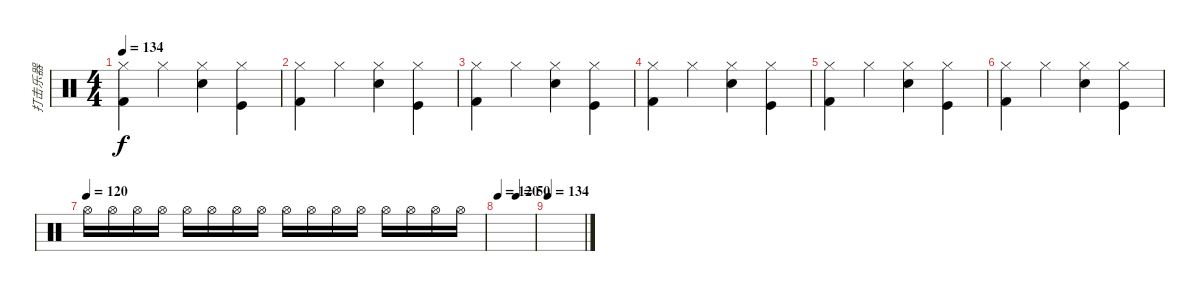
\track ("打击乐器" "打击乐器") {instrument percussion}
\staff {score}
\articulation defaults
\ts (4 4)
\tempo 134
\clef neutral
\ks c
("Hi-Hat (closed)" "Kick (hit) 2").4{dy f} "Hi-Hat (closed)".4 ("Hi-Hat (closed)" "Snare (hit) 2").4 ("Kick (hit)" "Hi-Hat (closed)").4 |
("Hi-Hat (closed)" "Kick (hit) 2").4 "Hi-Hat (closed)".4 ("Hi-Hat (closed)" "Snare (hit) 2").4 ("Kick (hit)" "Hi-Hat (closed)").4 |
("Hi-Hat (closed)" "Kick (hit) 2").4 "Hi-Hat (closed)".4 ("Hi-Hat (closed)" "Snare (hit) 2").4 ("Kick (hit)" "Hi-Hat (closed)").4 |
("Hi-Hat (closed)" "Kick (hit) 2").4 "Hi-Hat (closed)".4 ("Hi-Hat (closed)" "Snare (hit) 2").4 ("Kick (hit)" "Hi-Hat (closed)").4 |
("Hi-Hat (closed)" "Kick (hit) 2").4 "Hi-Hat (closed)".4 ("Hi-Hat (closed)" "Snare (hit) 2").4 ("Kick (hit)" "Hi-Hat (closed)").4 |
("Hi-Hat (closed)" "Kick (hit) 2").4 "Hi-Hat (closed)".4 ("Hi-Hat (closed)" "Snare (hit) 2").4 ("Kick (hit)" "Hi-Hat (closed)").4 |
\tempo (120)
"Hi-Hat (open)".16 "Hi-Hat (open)".16 "Hi-Hat (open)".16 "Hi-Hat (open)".16 "Hi-Hat (open)".16{volume 4} "Hi-Hat (open)".16 "Hi-Hat (open)".16 "Hi-Hat (open)".16 "Hi-Hat (open)".16{volume 3} "Hi-Hat (open)".16 "Hi-Hat (open)".16 "Hi-Hat (open)".16 "Hi-Hat (open)".16{volume 2} "Hi-Hat (open)".16 "Hi-Hat (open)".16 "Hi-Hat (open)".16 |
\tempo 120
\tempo (50 0.5)
|
\tempo 134
